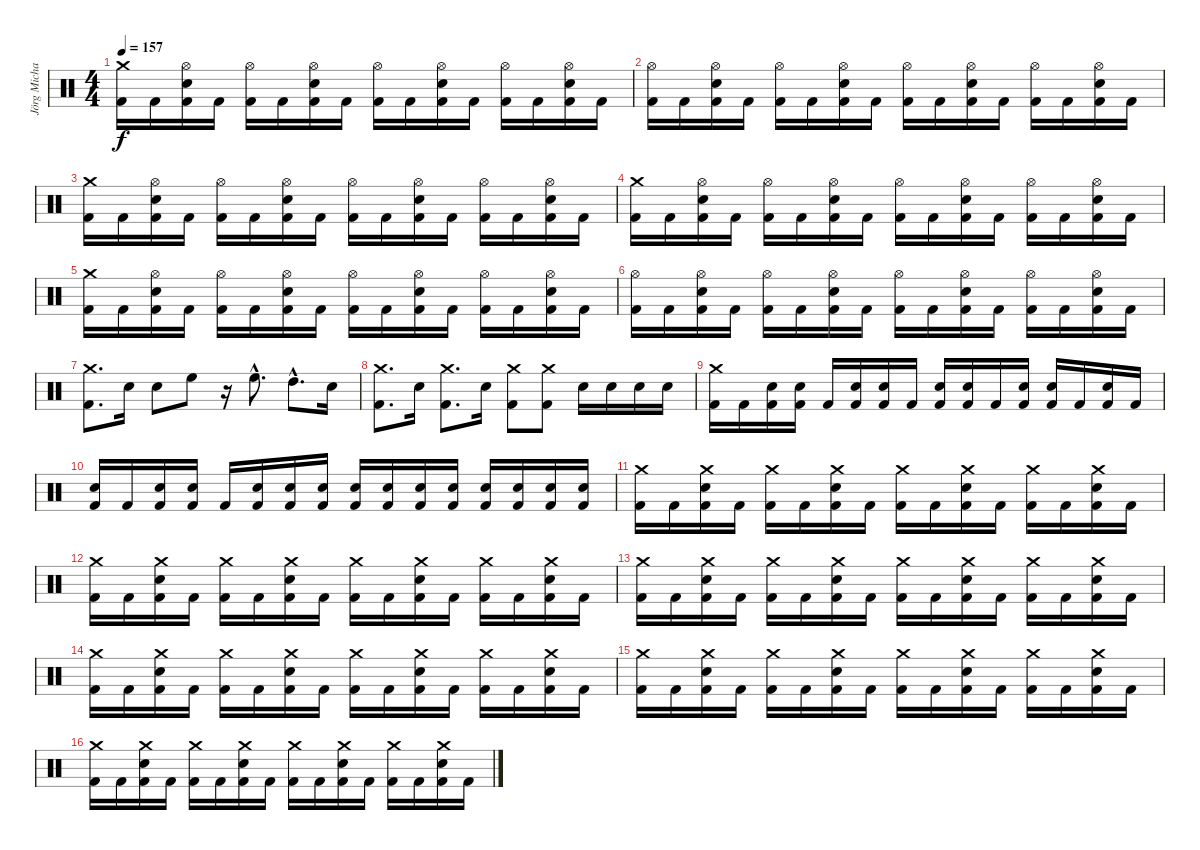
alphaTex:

\track ("Jörg Michael" "Jörg Micha") {instrument percussion}
\staff {score}
\articulation defaults
\ts (4 4)
\tempo 157
\clef neutral
\ks c
("Crash medium (hit)" "Kick (hit) 2").16{dy f} "Kick (hit) 2".16 ("Hi-Hat (open)" "Snare (hit) 2" "Kick (hit) 2").16 "Kick (hit) 2".16 ("Hi-Hat (open)" "Kick (hit) 2").16 "Kick (hit) 2".16 ("Hi-Hat (open)" "Snare (hit) 2" "Kick (hit) 2").16 "Kick (hit) 2".16 ("Hi-Hat (open)" "Kick (hit) 2").16 "Kick (hit) 2".16 ("Hi-Hat (open)" "Snare (hit) 2" "Kick (hit) 2").16 "Kick (hit) 2".16 ("Hi-Hat (open)" "Kick (hit) 2").16 "Kick (hit) 2".16 ("Hi-Hat (open)" "Snare (hit) 2" "Kick (hit) 2").16 "Kick (hit) 2".16 |
("Hi-Hat (open)" "Kick (hit) 2").16 "Kick (hit) 2".16 ("Hi-Hat (open)" "Snare (hit) 2" "Kick (hit) 2").16 "Kick (hit) 2".16 ("Hi-Hat (open)" "Kick (hit) 2").16 "Kick (hit) 2".16 ("Hi-Hat (open)" "Snare (hit) 2" "Kick (hit) 2").16 "Kick (hit) 2".16 ("Hi-Hat (open)" "Kick (hit) 2").16 "Kick (hit) 2".16 ("Hi-Hat (open)" "Snare (hit) 2" "Kick (hit) 2").16 "Kick (hit) 2".16 ("Hi-Hat (open)" "Kick (hit) 2").16 "Kick (hit) 2".16 ("Hi-Hat (open)" "Snare (hit) 2" "Kick (hit) 2").16 "Kick (hit) 2".16 |
("Crash medium (hit)" "Kick (hit) 2").16 "Kick (hit) 2".16 ("Hi-Hat (open)" "Snare (hit) 2" "Kick (hit) 2").16 "Kick (hit) 2".16 ("Hi-Hat (open)" "Kick (hit) 2").16 "Kick (hit) 2".16 ("Hi-Hat (open)" "Snare (hit) 2" "Kick (hit) 2").16 "Kick (hit) 2".16 ("Hi-Hat (open)" "Kick (hit) 2").16 "Kick (hit) 2".16 ("Hi-Hat (open)" "Snare (hit) 2" "Kick (hit) 2").16 "Kick (hit) 2".16 ("Hi-Hat (open)" "Kick (hit) 2").16 "Kick (hit) 2".16 ("Hi-Hat (open)" "Snare (hit) 2" "Kick (hit) 2").16 "Kick (hit) 2".16 |
("Crash medium (hit)" "Kick (hit) 2").16 "Kick (hit) 2".16 ("Hi-Hat (open)" "Snare (hit) 2" "Kick (hit) 2").16 "Kick (hit) 2".16 ("Hi-Hat (open)" "Kick (hit) 2").16 "Kick (hit) 2".16 ("Hi-Hat (open)" "Snare (hit) 2" "Kick (hit) 2").16 "Kick (hit) 2".16 ("Hi-Hat (open)" "Kick (hit) 2").16 "Kick (hit) 2".16 ("Hi-Hat (open)" "Snare (hit) 2" "Kick (hit) 2").16 "Kick (hit) 2".16 ("Hi-Hat (open)" "Kick (hit) 2").16 "Kick (hit) 2".16 ("Hi-Hat (open)" "Snare (hit) 2" "Kick (hit) 2").16 "Kick (hit) 2".16 |
("Crash medium (hit)" "Kick (hit) 2").16 "Kick (hit) 2".16 ("Hi-Hat (open)" "Snare (hit) 2" "Kick (hit) 2").16 "Kick (hit) 2".16 ("Hi-Hat (open)" "Kick (hit) 2").16 "Kick (hit) 2".16 ("Hi-Hat (open)" "Snare (hit) 2" "Kick (hit) 2").16 "Kick (hit) 2".16 ("Hi-Hat (open)" "Kick (hit) 2").16 "Kick (hit) 2".16 ("Hi-Hat (open)" "Snare (hit) 2" "Kick (hit) 2").16 "Kick (hit) 2".16 ("Hi-Hat (open)" "Kick (hit) 2").16 "Kick (hit) 2".16 ("Hi-Hat (open)" "Snare (hit) 2" "Kick (hit) 2").16 "Kick (hit) 2".16 |
("Hi-Hat (open)" "Kick (hit) 2").16 "Kick (hit) 2".16 ("Hi-Hat (open)" "Snare (hit) 2" "Kick (hit) 2").16 "Kick (hit) 2".16 ("Hi-Hat (open)" "Kick (hit) 2").16 "Kick (hit) 2".16 ("Hi-Hat (open)" "Snare (hit) 2" "Kick (hit) 2").16 "Kick (hit) 2".16 ("Hi-Hat (open)" "Kick (hit) 2").16 "Kick (hit) 2".16 ("Hi-Hat (open)" "Snare (hit) 2" "Kick (hit) 2").16 "Kick (hit) 2".16 ("Hi-Hat (open)" "Kick (hit) 2").16 "Kick (hit) 2".16 ("Hi-Hat (open)" "Snare (hit) 2" "Kick (hit) 2").16 "Kick (hit) 2".16 |
("Crash medium (hit)" "Kick (hit) 2").8{d} "Snare (hit) 2".16 "Snare (hit) 2".8 "High Floor Tom (hit)".8 r.16 "High Floor Tom (hit)"{hac}.8{d} "High Tom (hit)"{hac}.8{d} "Snare (hit) 2".16 |
("Crash medium (hit)" "Kick (hit) 2").8{d} "Snare (hit) 2".16 ("Crash medium (hit)" "Kick (hit) 2").8{d} "Snare (hit) 2".16 ("Crash medium (hit)" "Kick (hit) 2").8 ("Crash medium (hit)" "Kick (hit) 2").8 "Snare (hit) 2".16 "Snare (hit) 2".16 "Snare (hit) 2".16 "Snare (hit) 2".16 |
("Crash medium (hit)" "Kick (hit) 2").16 "Kick (hit) 2".16 ("Snare (hit) 2" "Kick (hit) 2").16 ("Snare (hit) 2" "Kick (hit) 2").16 "Kick (hit) 2".16 ("Snare (hit) 2" "Kick (hit) 2").16 ("Snare (hit) 2" "Kick (hit) 2").16 "Kick (hit) 2".16 ("Snare (hit) 2" "Kick (hit) 2").16 ("Snare (hit) 2" "Kick (hit) 2").16 "Kick (hit) 2".16 ("Snare (hit) 2" "Kick (hit) 2").16 ("Snare (hit) 2" "Kick (hit) 2").16 "Kick (hit) 2".16 ("Snare (hit) 2" "Kick (hit) 2").16 "Kick (hit) 2".16 |
("Snare (hit) 2" "Kick (hit) 2").16 "Kick (hit) 2".16 ("Snare (hit) 2" "Kick (hit) 2").16 ("Snare (hit) 2" "Kick (hit) 2").16 "Kick (hit) 2".16 ("Snare (hit) 2" "Kick (hit) 2").16 ("Snare (hit) 2" "Kick (hit) 2").16 ("Snare (hit) 2" "Kick (hit) 2").16 ("Snare (hit) 2" "Kick (hit) 2").16 ("Snare (hit) 2" "Kick (hit) 2").16 ("Snare (hit) 2" "Kick (hit) 2").16 ("Snare (hit) 2" "Kick (hit) 2").16 ("Snare (hit) 2" "Kick (hit) 2").16 ("Snare (hit) 2" "Kick (hit) 2").16 ("Snare (hit) 2" "Kick (hit) 2").16 ("Snare (hit) 2" "Kick (hit) 2").16 |
("Crash medium (hit)" "Kick (hit) 2").16 "Kick (hit) 2".16 ("Crash medium (hit)" "Snare (hit) 2" "Kick (hit) 2").16 "Kick (hit) 2".16 ("Crash medium (hit)" "Kick (hit) 2").16 "Kick (hit) 2".16 ("Crash medium (hit)" "Snare (hit) 2" "Kick (hit) 2").16 "Kick (hit) 2".16 ("Crash medium (hit)" "Kick (hit) 2").16 "Kick (hit) 2".16 ("Crash medium (hit)" "Snare (hit) 2" "Kick (hit) 2").16 "Kick (hit) 2".16 ("Crash medium (hit)" "Kick (hit) 2").16 "Kick (hit) 2".16 ("Crash medium (hit)" "Snare (hit) 2" "Kick (hit) 2").16 "Kick (hit) 2".16 |
("Crash medium (hit)" "Kick (hit) 2").16 "Kick (hit) 2".16 ("Crash medium (hit)" "Snare (hit) 2" "Kick (hit) 2").16 "Kick (hit) 2".16 ("Crash medium (hit)" "Kick (hit) 2").16 "Kick (hit) 2".16 ("Crash medium (hit)" "Snare (hit) 2" "Kick (hit) 2").16 "Kick (hit) 2".16 ("Crash medium (hit)" "Kick (hit) 2").16 "Kick (hit) 2".16 ("Crash medium (hit)" "Snare (hit) 2" "Kick (hit) 2").16 "Kick (hit) 2".16 ("Crash medium (hit)" "Kick (hit) 2").16 "Kick (hit) 2".16 ("Crash medium (hit)" "Snare (hit) 2" "Kick (hit) 2").16 "Kick (hit) 2".16 |
("Crash medium (hit)" "Kick (hit) 2").16 "Kick (hit) 2".16 ("Crash medium (hit)" "Snare (hit) 2" "Kick (hit) 2").16 "Kick (hit) 2".16 ("Crash medium (hit)" "Kick (hit) 2").16 "Kick (hit) 2".16 ("Crash medium (hit)" "Snare (hit) 2" "Kick (hit) 2").16 "Kick (hit) 2".16 ("Crash medium (hit)" "Kick (hit) 2").16 "Kick (hit) 2".16 ("Crash medium (hit)" "Snare (hit) 2" "Kick (hit) 2").16 "Kick (hit) 2".16 ("Crash medium (hit)" "Kick (hit) 2").16 "Kick (hit) 2".16 ("Crash medium (hit)" "Snare (hit) 2" "Kick (hit) 2").16 "Kick (hit) 2".16 |
("Crash medium (hit)" "Kick (hit) 2").16 "Kick (hit) 2".16 ("Crash medium (hit)" "Snare (hit) 2" "Kick (hit) 2").16 "Kick (hit) 2".16 ("Crash medium (hit)" "Kick (hit) 2").16 "Kick (hit) 2".16 ("Crash medium (hit)" "Snare (hit) 2" "Kick (hit) 2").16 "Kick (hit) 2".16 ("Crash medium (hit)" "Kick (hit) 2").16 "Kick (hit) 2".16 ("Crash medium (hit)" "Snare (hit) 2" "Kick (hit) 2").16 "Kick (hit) 2".16 ("Crash medium (hit)" "Kick (hit) 2").16 "Kick (hit) 2".16 ("Crash medium (hit)" "Snare (hit) 2" "Kick (hit) 2").16 "Kick (hit) 2".16 |
("Crash medium (hit)" "Kick (hit) 2").16 "Kick (hit) 2".16 ("Crash medium (hit)" "Snare (hit) 2" "Kick (hit) 2").16 "Kick (hit) 2".16 ("Crash medium (hit)" "Kick (hit) 2").16 "Kick (hit) 2".16 ("Crash medium (hit)" "Snare (hit) 2" "Kick (hit) 2").16 "Kick (hit) 2".16 ("Crash medium (hit)" "Kick (hit) 2").16 "Kick (hit) 2".16 ("Crash medium (hit)" "Snare (hit) 2" "Kick (hit) 2").16 "Kick (hit) 2".16 ("Crash medium (hit)" "Kick (hit) 2").16 "Kick (hit) 2".16 ("Crash medium (hit)" "Snare (hit) 2" "Kick (hit) 2").16 "Kick (hit) 2".16 |
("Crash medium (hit)" "Kick (hit) 2").16 "Kick (hit) 2".16 ("Crash medium (hit)" "Snare (hit) 2" "Kick (hit) 2").16 "Kick (hit) 2".16 ("Crash medium (hit)" "Kick (hit) 2").16 "Kick (hit) 2".16 ("Crash medium (hit)" "Snare (hit) 2" "Kick (hit) 2").16 "Kick (hit) 2".16 ("Crash medium (hit)" "Kick (hit) 2").16 "Kick (hit) 2".16 ("Crash medium (hit)" "Snare (hit) 2" "Kick (hit) 2").16 "Kick (hit) 2".16 ("Crash medium (hit)" "Kick (hit) 2").16 "Kick (hit) 2".16 ("Crash medium (hit)" "Snare (hit) 2" "Kick (hit) 2").16 "Kick (hit) 2".16
